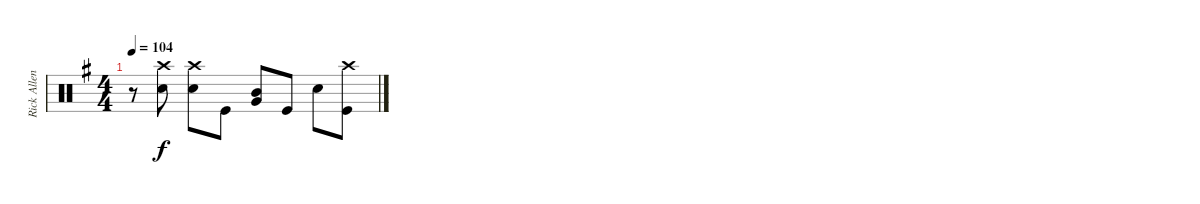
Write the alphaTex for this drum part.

\track ("Rick Allen" "Rick Allen") {instrument percussion}
\staff {score}
\articulation defaults
\ts (4 4)
\tempo 104
\clef neutral
\ks eminor
r.8{dy f} ("Crash high (hit)" "Snare (hit) 2").8 ("Crash high (hit)" "Snare (hit) 2").8 "Kick (hit)".8 ("Mid Tom (hit)" "Very Low Tom (hit)").8 "Kick (hit)".8 "Snare (hit) 2".8 ("Crash high (hit)" "Kick (hit)").8
